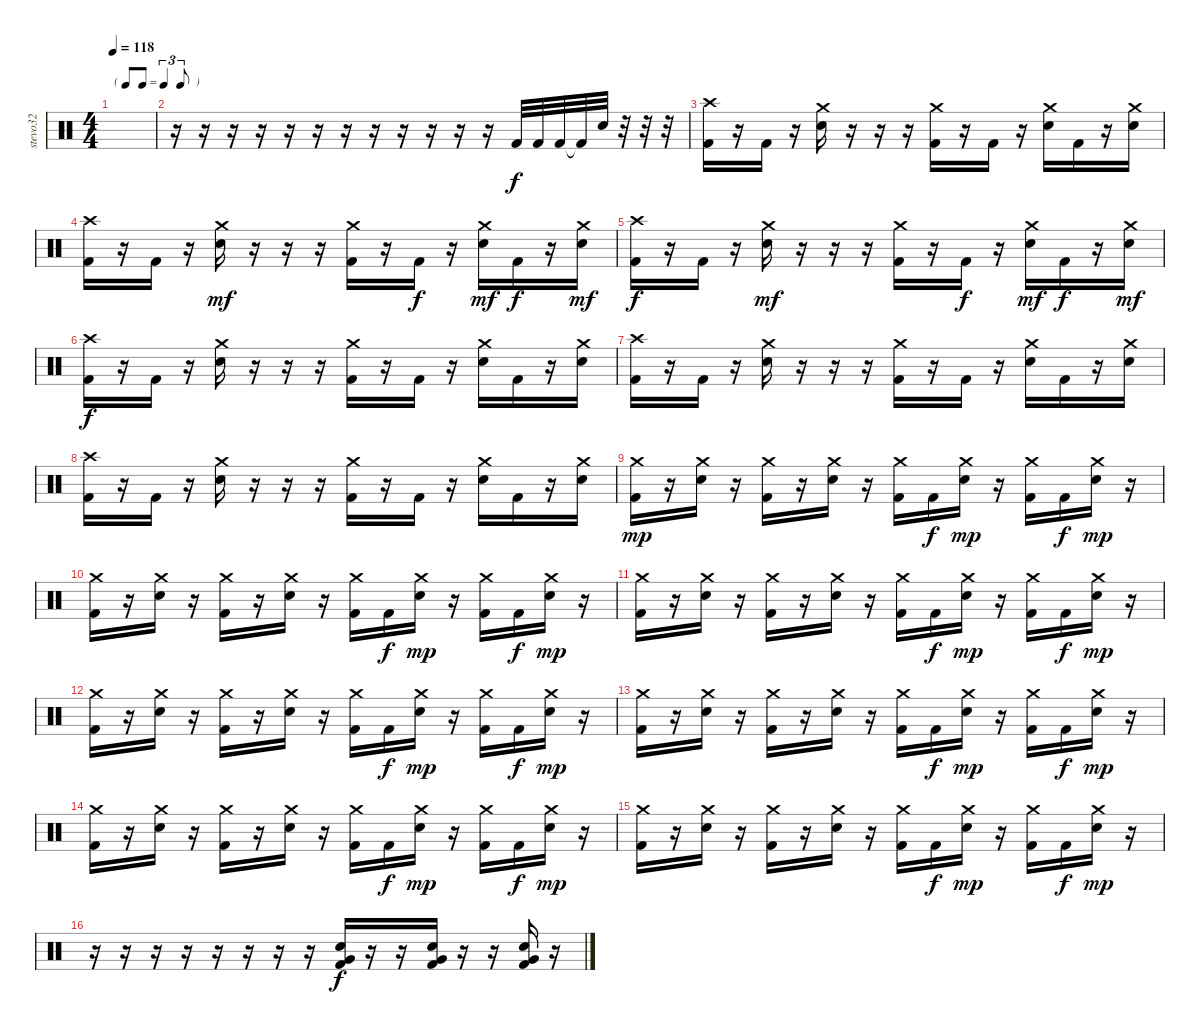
\track ("stevo32" "stevo32") {instrument percussion}
\staff {score}
\articulation defaults
\ts (4 4)
\tf triplet8th
\tempo 118
\clef neutral
\ks c
|
r.16 r.16 r.16 r.16 r.16 r.16 r.16 r.16 r.16 r.16 r.16 r.16 "Kick (hit) 2".32 "Kick (hit) 2".32 "Kick (hit) 2".32 "Kick (hit) 2"{t}.32 "Electric Snare (hit)".32 r.32 r.32 r.32 |
("Crash high (hit)" "Kick (hit) 2").16 r.16 "Kick (hit) 2".16 r.16 ("Crash medium (hit)" "Electric Snare (hit)").16 r.16 r.16 r.16 ("Crash medium (hit)" "Kick (hit) 2").16 r.16 "Kick (hit) 2".16 r.16 ("Crash medium (hit)" "Electric Snare (hit)").16 "Kick (hit) 2".16 r.16 ("Crash medium (hit)" "Electric Snare (hit)").16 |
("Crash high (hit)" "Kick (hit) 2").16 r.16 "Kick (hit) 2".16 r.16 ("Crash medium (hit)" "Electric Snare (hit)").16{dy mf} r.16 r.16 r.16 ("Crash medium (hit)" "Kick (hit) 2").16 r.16 "Kick (hit) 2".16{dy f} r.16 ("Crash medium (hit)" "Electric Snare (hit)").16{dy mf} "Kick (hit) 2".16{dy f} r.16 ("Crash medium (hit)" "Electric Snare (hit)").16{dy mf} |
("Crash high (hit)" "Kick (hit) 2").16{dy f} r.16 "Kick (hit) 2".16 r.16 ("Crash medium (hit)" "Electric Snare (hit)").16{dy mf} r.16 r.16 r.16 ("Crash medium (hit)" "Kick (hit) 2").16 r.16 "Kick (hit) 2".16{dy f} r.16 ("Crash medium (hit)" "Electric Snare (hit)").16{dy mf} "Kick (hit) 2".16{dy f} r.16 ("Crash medium (hit)" "Electric Snare (hit)").16{dy mf} |
("Crash high (hit)" "Kick (hit) 2").16{dy f} r.16 "Kick (hit) 2".16 r.16 ("Crash medium (hit)" "Electric Snare (hit)").16 r.16 r.16 r.16 ("Crash medium (hit)" "Kick (hit) 2").16 r.16 "Kick (hit) 2".16 r.16 ("Crash medium (hit)" "Electric Snare (hit)").16 "Kick (hit) 2".16 r.16 ("Crash medium (hit)" "Electric Snare (hit)").16 |
("Crash high (hit)" "Kick (hit) 2").16 r.16 "Kick (hit) 2".16 r.16 ("Crash medium (hit)" "Electric Snare (hit)").16 r.16 r.16 r.16 ("Crash medium (hit)" "Kick (hit) 2").16 r.16 "Kick (hit) 2".16 r.16 ("Crash medium (hit)" "Electric Snare (hit)").16 "Kick (hit) 2".16 r.16 ("Crash medium (hit)" "Electric Snare (hit)").16 |
("Crash high (hit)" "Kick (hit) 2").16 r.16 "Kick (hit) 2".16 r.16 ("Crash medium (hit)" "Electric Snare (hit)").16 r.16 r.16 r.16 ("Crash medium (hit)" "Kick (hit) 2").16 r.16 "Kick (hit) 2".16 r.16 ("Crash medium (hit)" "Electric Snare (hit)").16 "Kick (hit) 2".16 r.16 ("Crash medium (hit)" "Electric Snare (hit)").16 |
("Crash medium (hit)" "Kick (hit) 2").16{dy mp} r.16 ("Crash medium (hit)" "Electric Snare (hit)").16 r.16 ("Crash medium (hit)" "Kick (hit) 2").16 r.16 ("Crash medium (hit)" "Electric Snare (hit)").16 r.16 ("Crash medium (hit)" "Kick (hit) 2").16 "Kick (hit) 2".16{dy f} ("Crash medium (hit)" "Electric Snare (hit)").16{dy mp} r.16 ("Crash medium (hit)" "Kick (hit) 2").16 "Kick (hit) 2".16{dy f} ("Crash medium (hit)" "Electric Snare (hit)").16{dy mp} r.16 |
("Crash medium (hit)" "Kick (hit) 2").16 r.16 ("Crash medium (hit)" "Electric Snare (hit)").16 r.16 ("Crash medium (hit)" "Kick (hit) 2").16 r.16 ("Crash medium (hit)" "Electric Snare (hit)").16 r.16 ("Crash medium (hit)" "Kick (hit) 2").16 "Kick (hit) 2".16{dy f} ("Crash medium (hit)" "Electric Snare (hit)").16{dy mp} r.16 ("Crash medium (hit)" "Kick (hit) 2").16 "Kick (hit) 2".16{dy f} ("Crash medium (hit)" "Electric Snare (hit)").16{dy mp} r.16 |
("Crash medium (hit)" "Kick (hit) 2").16 r.16 ("Crash medium (hit)" "Electric Snare (hit)").16 r.16 ("Crash medium (hit)" "Kick (hit) 2").16 r.16 ("Crash medium (hit)" "Electric Snare (hit)").16 r.16 ("Crash medium (hit)" "Kick (hit) 2").16 "Kick (hit) 2".16{dy f} ("Crash medium (hit)" "Electric Snare (hit)").16{dy mp} r.16 ("Crash medium (hit)" "Kick (hit) 2").16 "Kick (hit) 2".16{dy f} ("Crash medium (hit)" "Electric Snare (hit)").16{dy mp} r.16 |
("Crash medium (hit)" "Kick (hit) 2").16 r.16 ("Crash medium (hit)" "Electric Snare (hit)").16 r.16 ("Crash medium (hit)" "Kick (hit) 2").16 r.16 ("Crash medium (hit)" "Electric Snare (hit)").16 r.16 ("Crash medium (hit)" "Kick (hit) 2").16 "Kick (hit) 2".16{dy f} ("Crash medium (hit)" "Electric Snare (hit)").16{dy mp} r.16 ("Crash medium (hit)" "Kick (hit) 2").16 "Kick (hit) 2".16{dy f} ("Crash medium (hit)" "Electric Snare (hit)").16{dy mp} r.16 |
("Crash medium (hit)" "Kick (hit) 2").16 r.16 ("Crash medium (hit)" "Electric Snare (hit)").16 r.16 ("Crash medium (hit)" "Kick (hit) 2").16 r.16 ("Crash medium (hit)" "Electric Snare (hit)").16 r.16 ("Crash medium (hit)" "Kick (hit) 2").16 "Kick (hit) 2".16{dy f} ("Crash medium (hit)" "Electric Snare (hit)").16{dy mp} r.16 ("Crash medium (hit)" "Kick (hit) 2").16 "Kick (hit) 2".16{dy f} ("Crash medium (hit)" "Electric Snare (hit)").16{dy mp} r.16 |
("Crash medium (hit)" "Kick (hit) 2").16 r.16 ("Crash medium (hit)" "Electric Snare (hit)").16 r.16 ("Crash medium (hit)" "Kick (hit) 2").16 r.16 ("Crash medium (hit)" "Electric Snare (hit)").16 r.16 ("Crash medium (hit)" "Kick (hit) 2").16 "Kick (hit) 2".16{dy f} ("Crash medium (hit)" "Electric Snare (hit)").16{dy mp} r.16 ("Crash medium (hit)" "Kick (hit) 2").16 "Kick (hit) 2".16{dy f} ("Crash medium (hit)" "Electric Snare (hit)").16{dy mp} r.16 |
("Crash medium (hit)" "Kick (hit) 2").16 r.16 ("Crash medium (hit)" "Electric Snare (hit)").16 r.16 ("Crash medium (hit)" "Kick (hit) 2").16 r.16 ("Crash medium (hit)" "Electric Snare (hit)").16 r.16 ("Crash medium (hit)" "Kick (hit) 2").16 "Kick (hit) 2".16{dy f} ("Crash medium (hit)" "Electric Snare (hit)").16{dy mp} r.16 ("Crash medium (hit)" "Kick (hit) 2").16 "Kick (hit) 2".16{dy f} ("Crash medium (hit)" "Electric Snare (hit)").16{dy mp} r.16 |
r.16 r.16 r.16 r.16 r.16 r.16 r.16 r.16 ("Very Low Tom (hit)" "Electric Snare (hit)" "Kick (hit) 2").16{dy f} r.16 r.16 ("Very Low Tom (hit)" "Electric Snare (hit)" "Kick (hit) 2").16 r.16 r.16 ("Very Low Tom (hit)" "Electric Snare (hit)" "Kick (hit) 2").16 r.16
